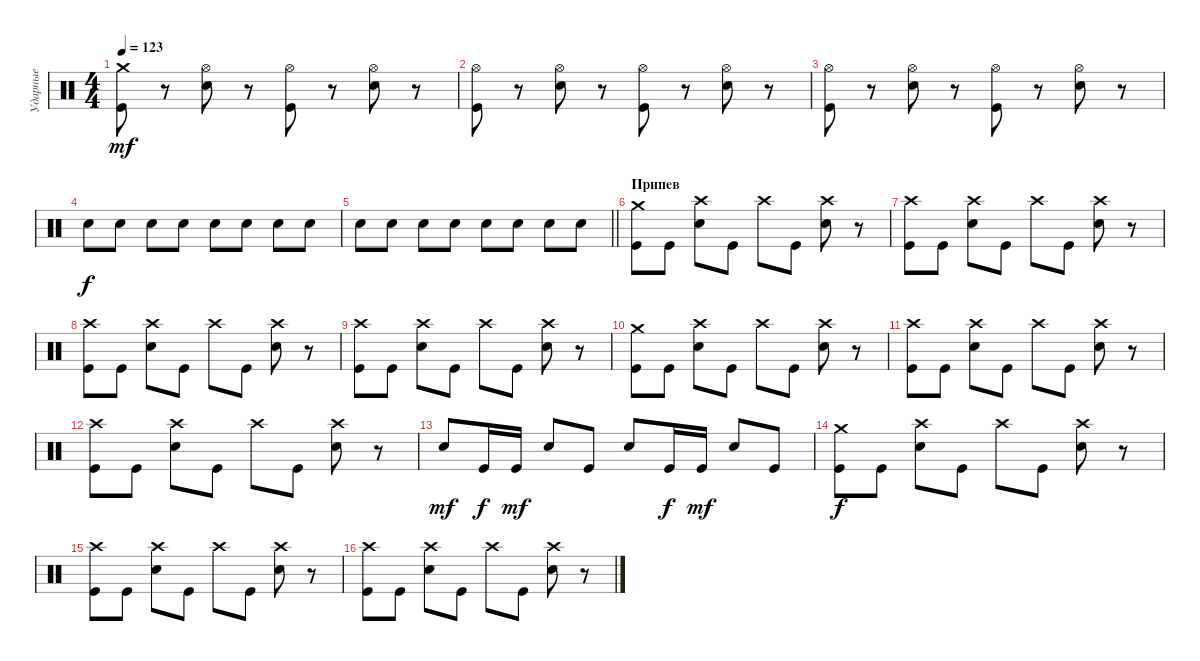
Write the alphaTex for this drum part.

\track ("Ударные" "Ударные") {instrument percussion}
\staff {score}
\articulation defaults
\ts (4 4)
\section ("" " ")
\tempo 123
\clef neutral
\ks c
("Crash medium (hit)" "Kick (hit)").8{dy mf} r.8 ("Hi-Hat (open)" "Electric Snare (hit)").8 r.8 ("Hi-Hat (open)" "Kick (hit)").8 r.8 ("Hi-Hat (open)" "Electric Snare (hit)").8 r.8 |
("Hi-Hat (open)" "Kick (hit)").8 r.8 ("Hi-Hat (open)" "Electric Snare (hit)").8 r.8 ("Hi-Hat (open)" "Kick (hit)").8 r.8 ("Hi-Hat (open)" "Electric Snare (hit)").8 r.8 |
("Hi-Hat (open)" "Kick (hit)").8 r.8 ("Hi-Hat (open)" "Electric Snare (hit)").8 r.8 ("Hi-Hat (open)" "Kick (hit)").8 r.8 ("Hi-Hat (open)" "Electric Snare (hit)").8 r.8 |
"Electric Snare (hit)".8{dy f} "Electric Snare (hit)".8 "Electric Snare (hit)".8 "Electric Snare (hit)".8 "Electric Snare (hit)".8 "Electric Snare (hit)".8 "Electric Snare (hit)".8 "Electric Snare (hit)".8 |
\barLineRight lightlight "Electric Snare (hit)".8 "Electric Snare (hit)".8 "Electric Snare (hit)".8 "Electric Snare (hit)".8 "Electric Snare (hit)".8 "Electric Snare (hit)".8 "Electric Snare (hit)".8 "Electric Snare (hit)".8
|
\section ("" "Припев")
("Crash medium (hit)" "Kick (hit)").8 "Kick (hit)".8 ("Crash high (hit)" "Electric Snare (hit)").8 "Kick (hit)".8 "Crash high (hit)".8 "Kick (hit)".8 ("Crash high (hit)" "Electric Snare (hit)").8 r.8 |
("Crash high (hit)" "Kick (hit)").8 "Kick (hit)".8 ("Crash high (hit)" "Electric Snare (hit)").8 "Kick (hit)".8 "Crash high (hit)".8 "Kick (hit)".8 ("Crash high (hit)" "Electric Snare (hit)").8 r.8 |
("Crash high (hit)" "Kick (hit)").8 "Kick (hit)".8 ("Crash high (hit)" "Electric Snare (hit)").8 "Kick (hit)".8 "Crash high (hit)".8 "Kick (hit)".8 ("Crash high (hit)" "Electric Snare (hit)").8 r.8 |
("Crash high (hit)" "Kick (hit)").8 "Kick (hit)".8 ("Crash high (hit)" "Electric Snare (hit)").8 "Kick (hit)".8 "Crash high (hit)".8 "Kick (hit)".8 ("Crash high (hit)" "Electric Snare (hit)").8 r.8 |
("Crash medium (hit)" "Kick (hit)").8 "Kick (hit)".8 ("Crash high (hit)" "Electric Snare (hit)").8 "Kick (hit)".8 "Crash high (hit)".8 "Kick (hit)".8 ("Crash high (hit)" "Electric Snare (hit)").8 r.8 |
("Crash high (hit)" "Kick (hit)").8 "Kick (hit)".8 ("Crash high (hit)" "Electric Snare (hit)").8 "Kick (hit)".8 "Crash high (hit)".8 "Kick (hit)".8 ("Crash high (hit)" "Electric Snare (hit)").8 r.8 |
("Crash high (hit)" "Kick (hit)").8 "Kick (hit)".8 ("Crash high (hit)" "Electric Snare (hit)").8 "Kick (hit)".8 "Crash high (hit)".8 "Kick (hit)".8 ("Crash high (hit)" "Electric Snare (hit)").8 r.8 |
"Electric Snare (hit)".8{dy mf} "Kick (hit)".16{dy f} "Kick (hit)".16{dy mf} "Electric Snare (hit)".8 "Kick (hit)".8 "Electric Snare (hit)".8 "Kick (hit)".16{dy f} "Kick (hit)".16{dy mf} "Electric Snare (hit)".8 "Kick (hit)".8 |
("Crash medium (hit)" "Kick (hit)").8{dy f} "Kick (hit)".8 ("Crash high (hit)" "Electric Snare (hit)").8 "Kick (hit)".8 "Crash high (hit)".8 "Kick (hit)".8 ("Crash high (hit)" "Electric Snare (hit)").8 r.8 |
("Crash high (hit)" "Kick (hit)").8 "Kick (hit)".8 ("Crash high (hit)" "Electric Snare (hit)").8 "Kick (hit)".8 "Crash high (hit)".8 "Kick (hit)".8 ("Crash high (hit)" "Electric Snare (hit)").8 r.8 |
("Crash high (hit)" "Kick (hit)").8 "Kick (hit)".8 ("Crash high (hit)" "Electric Snare (hit)").8 "Kick (hit)".8 "Crash high (hit)".8 "Kick (hit)".8 ("Crash high (hit)" "Electric Snare (hit)").8 r.8
